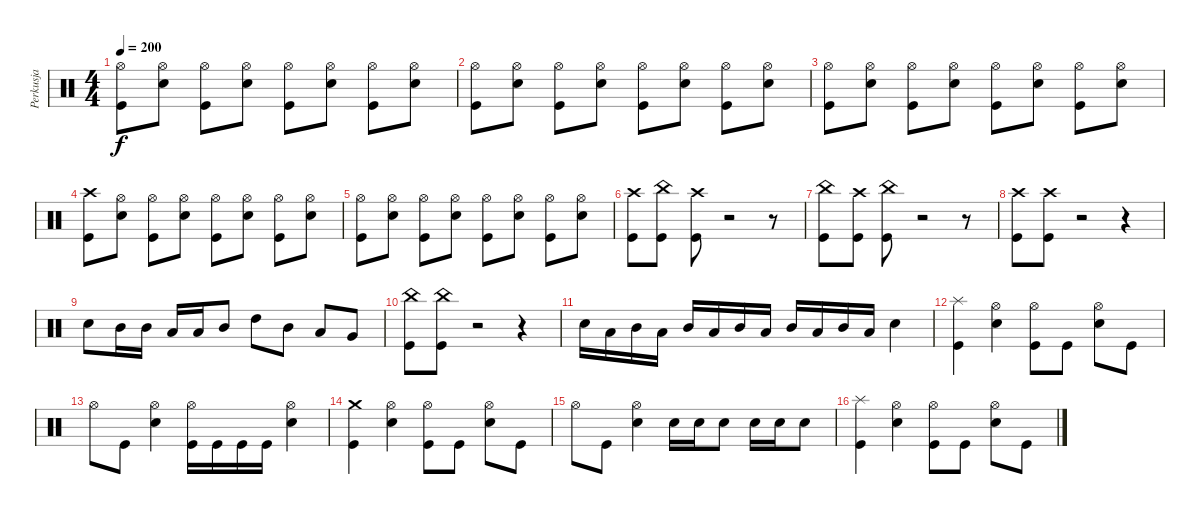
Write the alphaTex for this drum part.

\track ("Perkusja" "Perkusja") {instrument percussion}
\staff {score}
\articulation defaults
\ts (4 4)
\tempo 200
\clef neutral
\ks c
("Hi-Hat (open)" "Kick (hit)").8{dy f} ("Hi-Hat (open)" "Electric Snare (hit)").8 ("Hi-Hat (open)" "Kick (hit)").8 ("Hi-Hat (open)" "Electric Snare (hit)").8 ("Hi-Hat (open)" "Kick (hit)").8 ("Hi-Hat (open)" "Electric Snare (hit)").8 ("Hi-Hat (open)" "Kick (hit)").8 ("Hi-Hat (open)" "Electric Snare (hit)").8 |
("Hi-Hat (open)" "Kick (hit)").8 ("Hi-Hat (open)" "Electric Snare (hit)").8 ("Hi-Hat (open)" "Kick (hit)").8 ("Hi-Hat (open)" "Electric Snare (hit)").8 ("Hi-Hat (open)" "Kick (hit)").8 ("Hi-Hat (open)" "Electric Snare (hit)").8 ("Hi-Hat (open)" "Kick (hit)").8 ("Hi-Hat (open)" "Electric Snare (hit)").8 |
("Hi-Hat (open)" "Kick (hit)").8 ("Hi-Hat (open)" "Electric Snare (hit)").8 ("Hi-Hat (open)" "Kick (hit)").8 ("Hi-Hat (open)" "Electric Snare (hit)").8 ("Hi-Hat (open)" "Kick (hit)").8 ("Hi-Hat (open)" "Electric Snare (hit)").8 ("Hi-Hat (open)" "Kick (hit)").8 ("Hi-Hat (open)" "Electric Snare (hit)").8 |
("Crash high (hit)" "Kick (hit)").8 ("Hi-Hat (open)" "Electric Snare (hit)").8 ("Hi-Hat (open)" "Kick (hit)").8 ("Hi-Hat (open)" "Electric Snare (hit)").8 ("Hi-Hat (open)" "Kick (hit)").8 ("Hi-Hat (open)" "Electric Snare (hit)").8 ("Hi-Hat (open)" "Kick (hit)").8 ("Hi-Hat (open)" "Electric Snare (hit)").8 |
("Hi-Hat (open)" "Kick (hit)").8 ("Hi-Hat (open)" "Electric Snare (hit)").8 ("Hi-Hat (open)" "Kick (hit)").8 ("Hi-Hat (open)" "Electric Snare (hit)").8 ("Hi-Hat (open)" "Kick (hit)").8 ("Hi-Hat (open)" "Electric Snare (hit)").8 ("Hi-Hat (open)" "Kick (hit)").8 ("Hi-Hat (open)" "Electric Snare (hit)").8 |
("Crash high (hit)" "Kick (hit)").8 ("China (hit)" "Kick (hit)").8 ("Crash high (hit)" "Kick (hit)").8 r.2 r.8 |
("China (hit)" "Kick (hit)").8 ("Crash high (hit)" "Kick (hit)").8 ("China (hit)" "Kick (hit)").8 r.2 r.8 |
("Crash high (hit)" "Kick (hit)").8 ("Crash high (hit)" "Kick (hit)").8 r.2 r.4 |
"Electric Snare (hit)".8 "Mid Tom (hit)".16 "Mid Tom (hit)".16 "Low Tom (hit)".16 "Low Tom (hit)".16 "Mid Tom (hit)".8 "High Tom (hit)".8 "Mid Tom (hit)".8 "Low Tom (hit)".8 "Very Low Tom (hit)".8 |
("China (hit)" "Kick (hit)").8 ("China (hit)" "Kick (hit)").8 r.2 r.4 |
"Electric Snare (hit)".16 "Low Tom (hit)".16 "Mid Tom (hit)".16 "Low Tom (hit)".16 "Mid Tom (hit)".16 "Low Tom (hit)".16 "Mid Tom (hit)".16 "Low Tom (hit)".16 "Mid Tom (hit)".16 "Low Tom (hit)".16 "Mid Tom (hit)".16 "Low Tom (hit)".16 "Electric Snare (hit)".4 |
("Splash (hit)" "Kick (hit)").4 ("Hi-Hat (open)" "Electric Snare (hit)").4 ("Hi-Hat (open)" "Kick (hit)").8 "Kick (hit)".8 ("Hi-Hat (open)" "Electric Snare (hit)").8 "Kick (hit)".8 |
"Hi-Hat (open)".8 "Kick (hit)".8 ("Hi-Hat (open)" "Electric Snare (hit)").4 ("Hi-Hat (open)" "Kick (hit)").16 "Kick (hit)".16 "Kick (hit)".16 "Kick (hit)".16 ("Hi-Hat (open)" "Electric Snare (hit)").4 |
("Crash medium (hit)" "Kick (hit)").4 ("Hi-Hat (open)" "Electric Snare (hit)").4 ("Hi-Hat (open)" "Kick (hit)").8 "Kick (hit)".8 ("Hi-Hat (open)" "Electric Snare (hit)").8 "Kick (hit)".8 |
"Hi-Hat (open)".8 "Kick (hit)".8 ("Hi-Hat (open)" "Electric Snare (hit)").4 "Electric Snare (hit)".16 "Electric Snare (hit)".16 "Electric Snare (hit)".8 "Electric Snare (hit)".16 "Electric Snare (hit)".16 "Electric Snare (hit)".8 |
("Splash (hit)" "Kick (hit)").4 ("Hi-Hat (open)" "Electric Snare (hit)").4 ("Hi-Hat (open)" "Kick (hit)").8 "Kick (hit)".8 ("Hi-Hat (open)" "Electric Snare (hit)").8 "Kick (hit)".8
